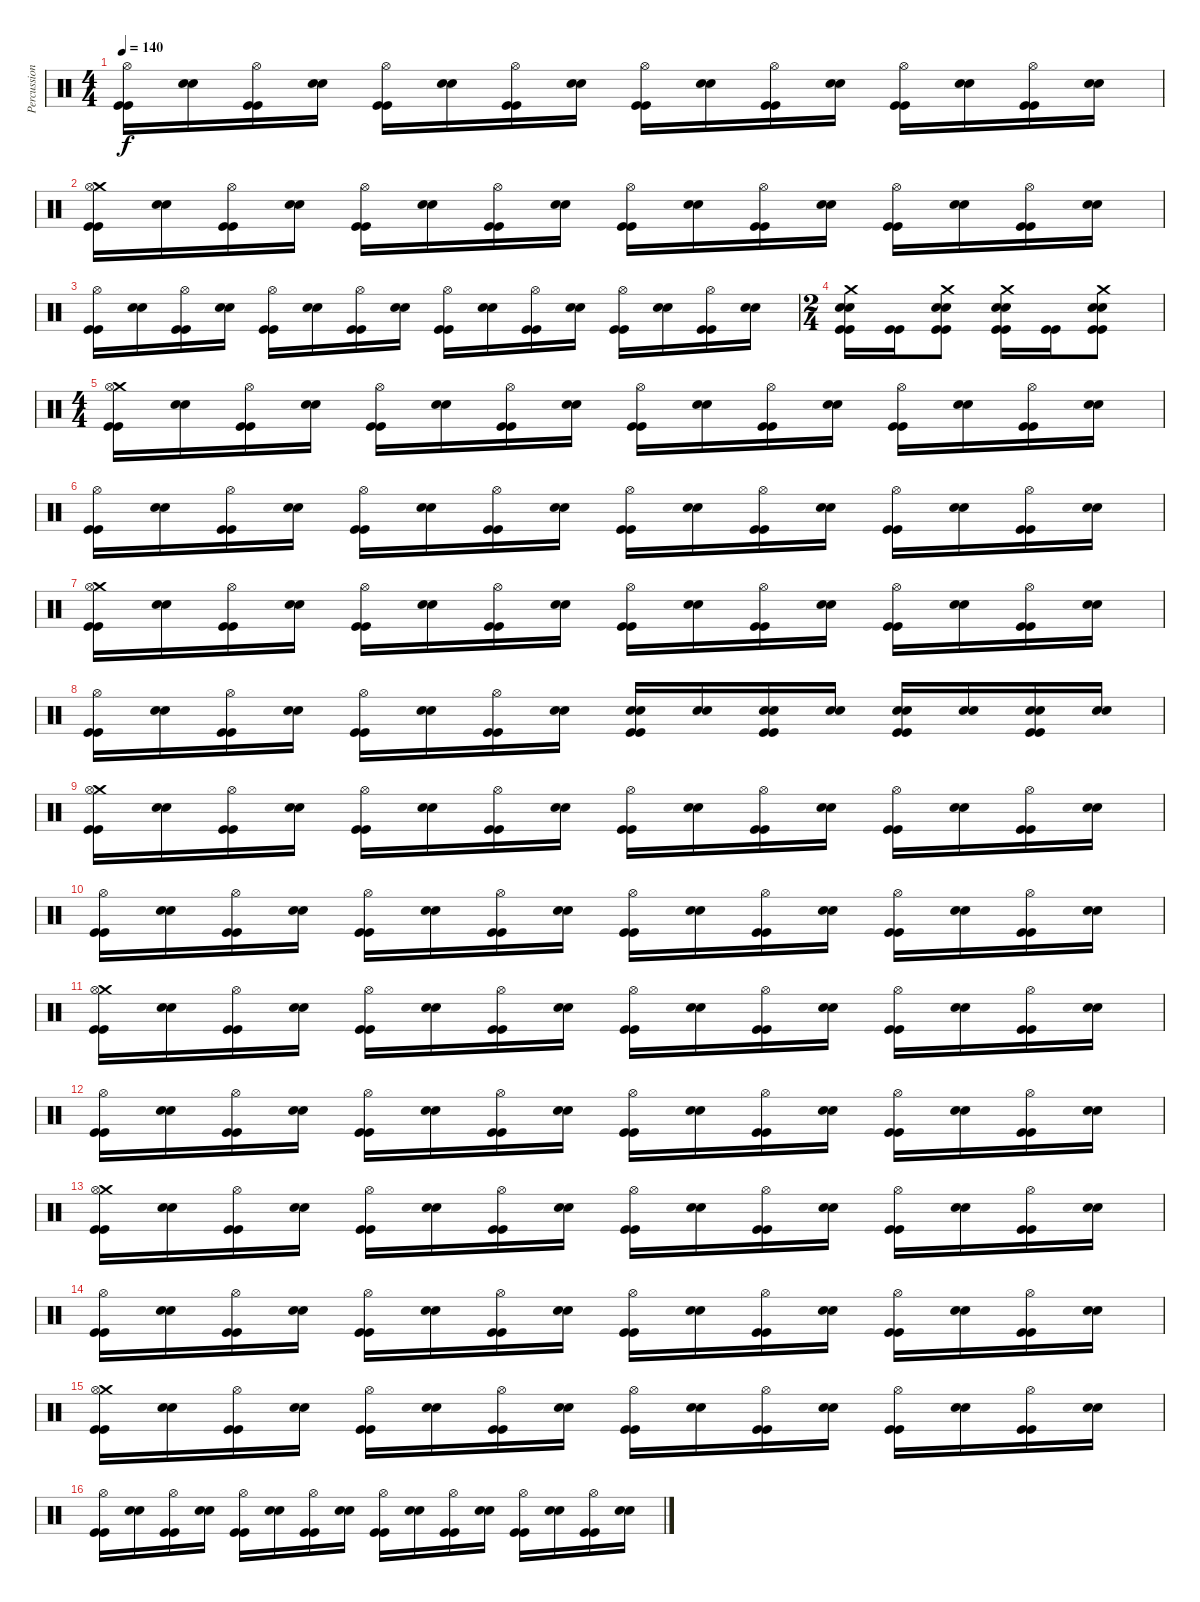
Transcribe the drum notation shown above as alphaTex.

\track ("Percussion" "Percussion") {instrument percussion}
\staff {score}
\articulation defaults
\ts (4 4)
\tempo 140
\clef neutral
\ks c
("Hi-Hat (open)" "Kick (hit)" "Kick (hit)").16{dy f} ("Snare (hit) 2" "Snare (hit) 2").16 ("Hi-Hat (open)" "Kick (hit)" "Kick (hit)").16 ("Snare (hit) 2" "Snare (hit) 2").16 ("Hi-Hat (open)" "Kick (hit)" "Kick (hit)").16 ("Snare (hit) 2" "Snare (hit) 2").16 ("Hi-Hat (open)" "Kick (hit)" "Kick (hit)").16 ("Snare (hit) 2" "Snare (hit) 2").16 ("Hi-Hat (open)" "Kick (hit)" "Kick (hit)").16 ("Snare (hit) 2" "Snare (hit) 2").16 ("Hi-Hat (open)" "Kick (hit)" "Kick (hit)").16 ("Snare (hit) 2" "Snare (hit) 2").16 ("Hi-Hat (open)" "Kick (hit)" "Kick (hit)").16 ("Snare (hit) 2" "Snare (hit) 2").16 ("Hi-Hat (open)" "Kick (hit)" "Kick (hit)").16 ("Snare (hit) 2" "Snare (hit) 2").16 |
("Crash medium (hit)" "Hi-Hat (open)" "Kick (hit)" "Kick (hit)").16 ("Snare (hit) 2" "Snare (hit) 2").16 ("Hi-Hat (open)" "Kick (hit)" "Kick (hit)").16 ("Snare (hit) 2" "Snare (hit) 2").16 ("Hi-Hat (open)" "Kick (hit)" "Kick (hit)").16 ("Snare (hit) 2" "Snare (hit) 2").16 ("Hi-Hat (open)" "Kick (hit)" "Kick (hit)").16 ("Snare (hit) 2" "Snare (hit) 2").16 ("Hi-Hat (open)" "Kick (hit)" "Kick (hit)").16 ("Snare (hit) 2" "Snare (hit) 2").16 ("Hi-Hat (open)" "Kick (hit)" "Kick (hit)").16 ("Snare (hit) 2" "Snare (hit) 2").16 ("Hi-Hat (open)" "Kick (hit)" "Kick (hit)").16 ("Snare (hit) 2" "Snare (hit) 2").16 ("Hi-Hat (open)" "Kick (hit)" "Kick (hit)").16 ("Snare (hit) 2" "Snare (hit) 2").16 |
("Hi-Hat (open)" "Kick (hit)" "Kick (hit)").16 ("Snare (hit) 2" "Snare (hit) 2").16 ("Hi-Hat (open)" "Kick (hit)" "Kick (hit)").16 ("Snare (hit) 2" "Snare (hit) 2").16 ("Hi-Hat (open)" "Kick (hit)" "Kick (hit)").16 ("Snare (hit) 2" "Snare (hit) 2").16 ("Hi-Hat (open)" "Kick (hit)" "Kick (hit)").16 ("Snare (hit) 2" "Snare (hit) 2").16 ("Hi-Hat (open)" "Kick (hit)" "Kick (hit)").16 ("Snare (hit) 2" "Snare (hit) 2").16 ("Hi-Hat (open)" "Kick (hit)" "Kick (hit)").16 ("Snare (hit) 2" "Snare (hit) 2").16 ("Hi-Hat (open)" "Kick (hit)" "Kick (hit)").16 ("Snare (hit) 2" "Snare (hit) 2").16 ("Hi-Hat (open)" "Kick (hit)" "Kick (hit)").16 ("Snare (hit) 2" "Snare (hit) 2").16 |
\ts (2 4)
("Crash medium (hit)" "Snare (hit) 2" "Snare (hit) 2" "Kick (hit)" "Kick (hit)").16 ("Kick (hit)" "Kick (hit)").16 ("Crash medium (hit)" "Snare (hit) 2" "Snare (hit) 2" "Kick (hit)" "Kick (hit)").8 ("Crash medium (hit)" "Snare (hit) 2" "Snare (hit) 2" "Kick (hit)" "Kick (hit)").16 ("Kick (hit)" "Kick (hit)").16 ("Crash medium (hit)" "Snare (hit) 2" "Snare (hit) 2" "Kick (hit)" "Kick (hit)").8 |
\ts (4 4)
("Crash medium (hit)" "Hi-Hat (open)" "Kick (hit)" "Kick (hit)").16 ("Snare (hit) 2" "Snare (hit) 2").16 ("Hi-Hat (open)" "Kick (hit)" "Kick (hit)").16 ("Snare (hit) 2" "Snare (hit) 2").16 ("Hi-Hat (open)" "Kick (hit)" "Kick (hit)").16 ("Snare (hit) 2" "Snare (hit) 2").16 ("Hi-Hat (open)" "Kick (hit)" "Kick (hit)").16 ("Snare (hit) 2" "Snare (hit) 2").16 ("Hi-Hat (open)" "Kick (hit)" "Kick (hit)").16 ("Snare (hit) 2" "Snare (hit) 2").16 ("Hi-Hat (open)" "Kick (hit)" "Kick (hit)").16 ("Snare (hit) 2" "Snare (hit) 2").16 ("Hi-Hat (open)" "Kick (hit)" "Kick (hit)").16 ("Snare (hit) 2" "Snare (hit) 2").16 ("Hi-Hat (open)" "Kick (hit)" "Kick (hit)").16 ("Snare (hit) 2" "Snare (hit) 2").16 |
("Hi-Hat (open)" "Kick (hit)" "Kick (hit)").16 ("Snare (hit) 2" "Snare (hit) 2").16 ("Hi-Hat (open)" "Kick (hit)" "Kick (hit)").16 ("Snare (hit) 2" "Snare (hit) 2").16 ("Hi-Hat (open)" "Kick (hit)" "Kick (hit)").16 ("Snare (hit) 2" "Snare (hit) 2").16 ("Hi-Hat (open)" "Kick (hit)" "Kick (hit)").16 ("Snare (hit) 2" "Snare (hit) 2").16 ("Hi-Hat (open)" "Kick (hit)" "Kick (hit)").16 ("Snare (hit) 2" "Snare (hit) 2").16 ("Hi-Hat (open)" "Kick (hit)" "Kick (hit)").16 ("Snare (hit) 2" "Snare (hit) 2").16 ("Hi-Hat (open)" "Kick (hit)" "Kick (hit)").16 ("Snare (hit) 2" "Snare (hit) 2").16 ("Hi-Hat (open)" "Kick (hit)" "Kick (hit)").16 ("Snare (hit) 2" "Snare (hit) 2").16 |
("Crash medium (hit)" "Hi-Hat (open)" "Kick (hit)" "Kick (hit)").16 ("Snare (hit) 2" "Snare (hit) 2").16 ("Hi-Hat (open)" "Kick (hit)" "Kick (hit)").16 ("Snare (hit) 2" "Snare (hit) 2").16 ("Hi-Hat (open)" "Kick (hit)" "Kick (hit)").16 ("Snare (hit) 2" "Snare (hit) 2").16 ("Hi-Hat (open)" "Kick (hit)" "Kick (hit)").16 ("Snare (hit) 2" "Snare (hit) 2").16 ("Hi-Hat (open)" "Kick (hit)" "Kick (hit)").16 ("Snare (hit) 2" "Snare (hit) 2").16 ("Hi-Hat (open)" "Kick (hit)" "Kick (hit)").16 ("Snare (hit) 2" "Snare (hit) 2").16 ("Hi-Hat (open)" "Kick (hit)" "Kick (hit)").16 ("Snare (hit) 2" "Snare (hit) 2").16 ("Hi-Hat (open)" "Kick (hit)" "Kick (hit)").16 ("Snare (hit) 2" "Snare (hit) 2").16 |
("Hi-Hat (open)" "Kick (hit)" "Kick (hit)").16 ("Snare (hit) 2" "Snare (hit) 2").16 ("Hi-Hat (open)" "Kick (hit)" "Kick (hit)").16 ("Snare (hit) 2" "Snare (hit) 2").16 ("Hi-Hat (open)" "Kick (hit)" "Kick (hit)").16 ("Snare (hit) 2" "Snare (hit) 2").16 ("Hi-Hat (open)" "Kick (hit)" "Kick (hit)").16 ("Snare (hit) 2" "Snare (hit) 2").16 ("Snare (hit) 2" "Snare (hit) 2" "Kick (hit)" "Kick (hit)").16 ("Snare (hit) 2" "Snare (hit) 2").16 ("Snare (hit) 2" "Snare (hit) 2" "Kick (hit)" "Kick (hit)").16 ("Snare (hit) 2" "Snare (hit) 2").16 ("Snare (hit) 2" "Snare (hit) 2" "Kick (hit)" "Kick (hit)").16 ("Snare (hit) 2" "Snare (hit) 2").16 ("Snare (hit) 2" "Snare (hit) 2" "Kick (hit)" "Kick (hit)").16 ("Snare (hit) 2" "Snare (hit) 2").16 |
("Crash medium (hit)" "Hi-Hat (open)" "Kick (hit)" "Kick (hit)").16 ("Snare (hit) 2" "Snare (hit) 2").16 ("Hi-Hat (open)" "Kick (hit)" "Kick (hit)").16 ("Snare (hit) 2" "Snare (hit) 2").16 ("Hi-Hat (open)" "Kick (hit)" "Kick (hit)").16 ("Snare (hit) 2" "Snare (hit) 2").16 ("Hi-Hat (open)" "Kick (hit)" "Kick (hit)").16 ("Snare (hit) 2" "Snare (hit) 2").16 ("Hi-Hat (open)" "Kick (hit)" "Kick (hit)").16 ("Snare (hit) 2" "Snare (hit) 2").16 ("Hi-Hat (open)" "Kick (hit)" "Kick (hit)").16 ("Snare (hit) 2" "Snare (hit) 2").16 ("Hi-Hat (open)" "Kick (hit)" "Kick (hit)").16 ("Snare (hit) 2" "Snare (hit) 2").16 ("Hi-Hat (open)" "Kick (hit)" "Kick (hit)").16 ("Snare (hit) 2" "Snare (hit) 2").16 |
("Hi-Hat (open)" "Kick (hit)" "Kick (hit)").16 ("Snare (hit) 2" "Snare (hit) 2").16 ("Hi-Hat (open)" "Kick (hit)" "Kick (hit)").16 ("Snare (hit) 2" "Snare (hit) 2").16 ("Hi-Hat (open)" "Kick (hit)" "Kick (hit)").16 ("Snare (hit) 2" "Snare (hit) 2").16 ("Hi-Hat (open)" "Kick (hit)" "Kick (hit)").16 ("Snare (hit) 2" "Snare (hit) 2").16 ("Hi-Hat (open)" "Kick (hit)" "Kick (hit)").16 ("Snare (hit) 2" "Snare (hit) 2").16 ("Hi-Hat (open)" "Kick (hit)" "Kick (hit)").16 ("Snare (hit) 2" "Snare (hit) 2").16 ("Hi-Hat (open)" "Kick (hit)" "Kick (hit)").16 ("Snare (hit) 2" "Snare (hit) 2").16 ("Hi-Hat (open)" "Kick (hit)" "Kick (hit)").16 ("Snare (hit) 2" "Snare (hit) 2").16 |
("Crash medium (hit)" "Hi-Hat (open)" "Kick (hit)" "Kick (hit)").16 ("Snare (hit) 2" "Snare (hit) 2").16 ("Hi-Hat (open)" "Kick (hit)" "Kick (hit)").16 ("Snare (hit) 2" "Snare (hit) 2").16 ("Hi-Hat (open)" "Kick (hit)" "Kick (hit)").16 ("Snare (hit) 2" "Snare (hit) 2").16 ("Hi-Hat (open)" "Kick (hit)" "Kick (hit)").16 ("Snare (hit) 2" "Snare (hit) 2").16 ("Hi-Hat (open)" "Kick (hit)" "Kick (hit)").16 ("Snare (hit) 2" "Snare (hit) 2").16 ("Hi-Hat (open)" "Kick (hit)" "Kick (hit)").16 ("Snare (hit) 2" "Snare (hit) 2").16 ("Hi-Hat (open)" "Kick (hit)" "Kick (hit)").16 ("Snare (hit) 2" "Snare (hit) 2").16 ("Hi-Hat (open)" "Kick (hit)" "Kick (hit)").16 ("Snare (hit) 2" "Snare (hit) 2").16 |
("Hi-Hat (open)" "Kick (hit)" "Kick (hit)").16 ("Snare (hit) 2" "Snare (hit) 2").16 ("Hi-Hat (open)" "Kick (hit)" "Kick (hit)").16 ("Snare (hit) 2" "Snare (hit) 2").16 ("Hi-Hat (open)" "Kick (hit)" "Kick (hit)").16 ("Snare (hit) 2" "Snare (hit) 2").16 ("Hi-Hat (open)" "Kick (hit)" "Kick (hit)").16 ("Snare (hit) 2" "Snare (hit) 2").16 ("Hi-Hat (open)" "Kick (hit)" "Kick (hit)").16 ("Snare (hit) 2" "Snare (hit) 2").16 ("Hi-Hat (open)" "Kick (hit)" "Kick (hit)").16 ("Snare (hit) 2" "Snare (hit) 2").16 ("Hi-Hat (open)" "Kick (hit)" "Kick (hit)").16 ("Snare (hit) 2" "Snare (hit) 2").16 ("Hi-Hat (open)" "Kick (hit)" "Kick (hit)").16 ("Snare (hit) 2" "Snare (hit) 2").16 |
("Crash medium (hit)" "Hi-Hat (open)" "Kick (hit)" "Kick (hit)").16 ("Snare (hit) 2" "Snare (hit) 2").16 ("Hi-Hat (open)" "Kick (hit)" "Kick (hit)").16 ("Snare (hit) 2" "Snare (hit) 2").16 ("Hi-Hat (open)" "Kick (hit)" "Kick (hit)").16 ("Snare (hit) 2" "Snare (hit) 2").16 ("Hi-Hat (open)" "Kick (hit)" "Kick (hit)").16 ("Snare (hit) 2" "Snare (hit) 2").16 ("Hi-Hat (open)" "Kick (hit)" "Kick (hit)").16 ("Snare (hit) 2" "Snare (hit) 2").16 ("Hi-Hat (open)" "Kick (hit)" "Kick (hit)").16 ("Snare (hit) 2" "Snare (hit) 2").16 ("Hi-Hat (open)" "Kick (hit)" "Kick (hit)").16 ("Snare (hit) 2" "Snare (hit) 2").16 ("Hi-Hat (open)" "Kick (hit)" "Kick (hit)").16 ("Snare (hit) 2" "Snare (hit) 2").16 |
("Hi-Hat (open)" "Kick (hit)" "Kick (hit)").16 ("Snare (hit) 2" "Snare (hit) 2").16 ("Hi-Hat (open)" "Kick (hit)" "Kick (hit)").16 ("Snare (hit) 2" "Snare (hit) 2").16 ("Hi-Hat (open)" "Kick (hit)" "Kick (hit)").16 ("Snare (hit) 2" "Snare (hit) 2").16 ("Hi-Hat (open)" "Kick (hit)" "Kick (hit)").16 ("Snare (hit) 2" "Snare (hit) 2").16 ("Hi-Hat (open)" "Kick (hit)" "Kick (hit)").16 ("Snare (hit) 2" "Snare (hit) 2").16 ("Hi-Hat (open)" "Kick (hit)" "Kick (hit)").16 ("Snare (hit) 2" "Snare (hit) 2").16 ("Hi-Hat (open)" "Kick (hit)" "Kick (hit)").16 ("Snare (hit) 2" "Snare (hit) 2").16 ("Hi-Hat (open)" "Kick (hit)" "Kick (hit)").16 ("Snare (hit) 2" "Snare (hit) 2").16 |
("Crash medium (hit)" "Hi-Hat (open)" "Kick (hit)" "Kick (hit)").16 ("Snare (hit) 2" "Snare (hit) 2").16 ("Hi-Hat (open)" "Kick (hit)" "Kick (hit)").16 ("Snare (hit) 2" "Snare (hit) 2").16 ("Hi-Hat (open)" "Kick (hit)" "Kick (hit)").16 ("Snare (hit) 2" "Snare (hit) 2").16 ("Hi-Hat (open)" "Kick (hit)" "Kick (hit)").16 ("Snare (hit) 2" "Snare (hit) 2").16 ("Hi-Hat (open)" "Kick (hit)" "Kick (hit)").16 ("Snare (hit) 2" "Snare (hit) 2").16 ("Hi-Hat (open)" "Kick (hit)" "Kick (hit)").16 ("Snare (hit) 2" "Snare (hit) 2").16 ("Hi-Hat (open)" "Kick (hit)" "Kick (hit)").16 ("Snare (hit) 2" "Snare (hit) 2").16 ("Hi-Hat (open)" "Kick (hit)" "Kick (hit)").16 ("Snare (hit) 2" "Snare (hit) 2").16 |
("Hi-Hat (open)" "Kick (hit)" "Kick (hit)").16 ("Snare (hit) 2" "Snare (hit) 2").16 ("Hi-Hat (open)" "Kick (hit)" "Kick (hit)").16 ("Snare (hit) 2" "Snare (hit) 2").16 ("Hi-Hat (open)" "Kick (hit)" "Kick (hit)").16 ("Snare (hit) 2" "Snare (hit) 2").16 ("Hi-Hat (open)" "Kick (hit)" "Kick (hit)").16 ("Snare (hit) 2" "Snare (hit) 2").16 ("Hi-Hat (open)" "Kick (hit)" "Kick (hit)").16 ("Snare (hit) 2" "Snare (hit) 2").16 ("Hi-Hat (open)" "Kick (hit)" "Kick (hit)").16 ("Snare (hit) 2" "Snare (hit) 2").16 ("Hi-Hat (open)" "Kick (hit)" "Kick (hit)").16 ("Snare (hit) 2" "Snare (hit) 2").16 ("Hi-Hat (open)" "Kick (hit)" "Kick (hit)").16 ("Snare (hit) 2" "Snare (hit) 2").16
